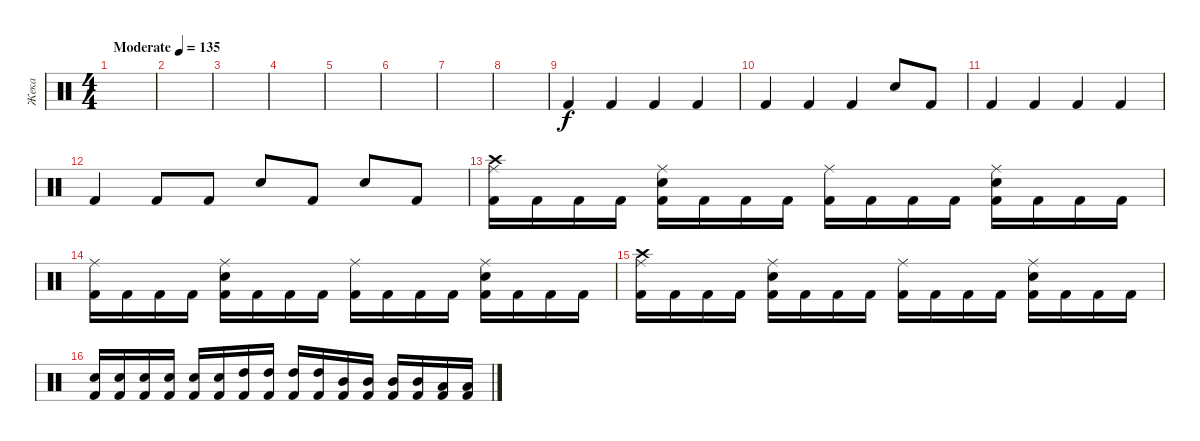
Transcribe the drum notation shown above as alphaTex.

\track ("Жека" "Жека") {instrument percussion}
\staff {score}
\articulation defaults
\ts (4 4)
\tempo (135 "Moderate")
\clef neutral
\ks c
|
|
|
|
|
|
|
|
"Kick (hit) 2".4 "Kick (hit) 2".4 "Kick (hit) 2".4 "Kick (hit) 2".4 |
"Kick (hit) 2".4 "Kick (hit) 2".4 "Kick (hit) 2".4 "Snare (hit) 2".8 "Kick (hit) 2".8 |
"Kick (hit) 2".4 "Kick (hit) 2".4 "Kick (hit) 2".4 "Kick (hit) 2".4 |
"Kick (hit) 2".4 "Kick (hit) 2".8 "Kick (hit) 2".8 "Snare (hit) 2".8 "Kick (hit) 2".8 "Snare (hit) 2".8 "Kick (hit) 2".8 |
("Kick (hit) 2" "Ride (middle)" "Crash high (hit)").16{dy f} "Kick (hit) 2".16 "Kick (hit) 2".16 "Kick (hit) 2".16 ("Kick (hit) 2" "Ride (middle)" "Snare (hit) 2").16 "Kick (hit) 2".16 "Kick (hit) 2".16 "Kick (hit) 2".16 ("Kick (hit) 2" "Ride (middle)").16 "Kick (hit) 2".16 "Kick (hit) 2".16 "Kick (hit) 2".16 ("Kick (hit) 2" "Ride (middle)" "Snare (hit) 2").16 "Kick (hit) 2".16 "Kick (hit) 2".16 "Kick (hit) 2".16 |
("Kick (hit) 2" "Ride (middle)").16 "Kick (hit) 2".16 "Kick (hit) 2".16 "Kick (hit) 2".16 ("Kick (hit) 2" "Ride (middle)" "Snare (hit) 2").16 "Kick (hit) 2".16 "Kick (hit) 2".16 "Kick (hit) 2".16 ("Kick (hit) 2" "Ride (middle)").16 "Kick (hit) 2".16 "Kick (hit) 2".16 "Kick (hit) 2".16 ("Kick (hit) 2" "Ride (middle)" "Snare (hit) 2").16 "Kick (hit) 2".16 "Kick (hit) 2".16 "Kick (hit) 2".16 |
("Kick (hit) 2" "Ride (middle)" "Crash high (hit)").16 "Kick (hit) 2".16 "Kick (hit) 2".16 "Kick (hit) 2".16 ("Kick (hit) 2" "Ride (middle)" "Snare (hit) 2").16 "Kick (hit) 2".16 "Kick (hit) 2".16 "Kick (hit) 2".16 ("Kick (hit) 2" "Ride (middle)").16 "Kick (hit) 2".16 "Kick (hit) 2".16 "Kick (hit) 2".16 ("Kick (hit) 2" "Ride (middle)" "Snare (hit) 2").16 "Kick (hit) 2".16 "Kick (hit) 2".16 "Kick (hit) 2".16 |
("Snare (hit) 2" "Kick (hit) 2").16 ("Snare (hit) 2" "Kick (hit) 2").16 ("Snare (hit) 2" "Kick (hit) 2").16 ("Snare (hit) 2" "Kick (hit) 2").16 ("Snare (hit) 2" "Kick (hit) 2").16 ("Snare (hit) 2" "Kick (hit) 2").16 ("High Tom (hit)" "Kick (hit) 2").16 ("High Tom (hit)" "Kick (hit) 2").16 ("High Tom (hit)" "Kick (hit) 2").16 ("High Tom (hit)" "Kick (hit) 2").16 ("Mid Tom (hit)" "Kick (hit) 2").16 ("Mid Tom (hit)" "Kick (hit) 2").16 ("Mid Tom (hit)" "Kick (hit) 2").16 ("Mid Tom (hit)" "Kick (hit) 2").16 ("Low Floor Tom (hit)" "Kick (hit) 2").16 ("Low Floor Tom (hit)" "Kick (hit) 2").16
